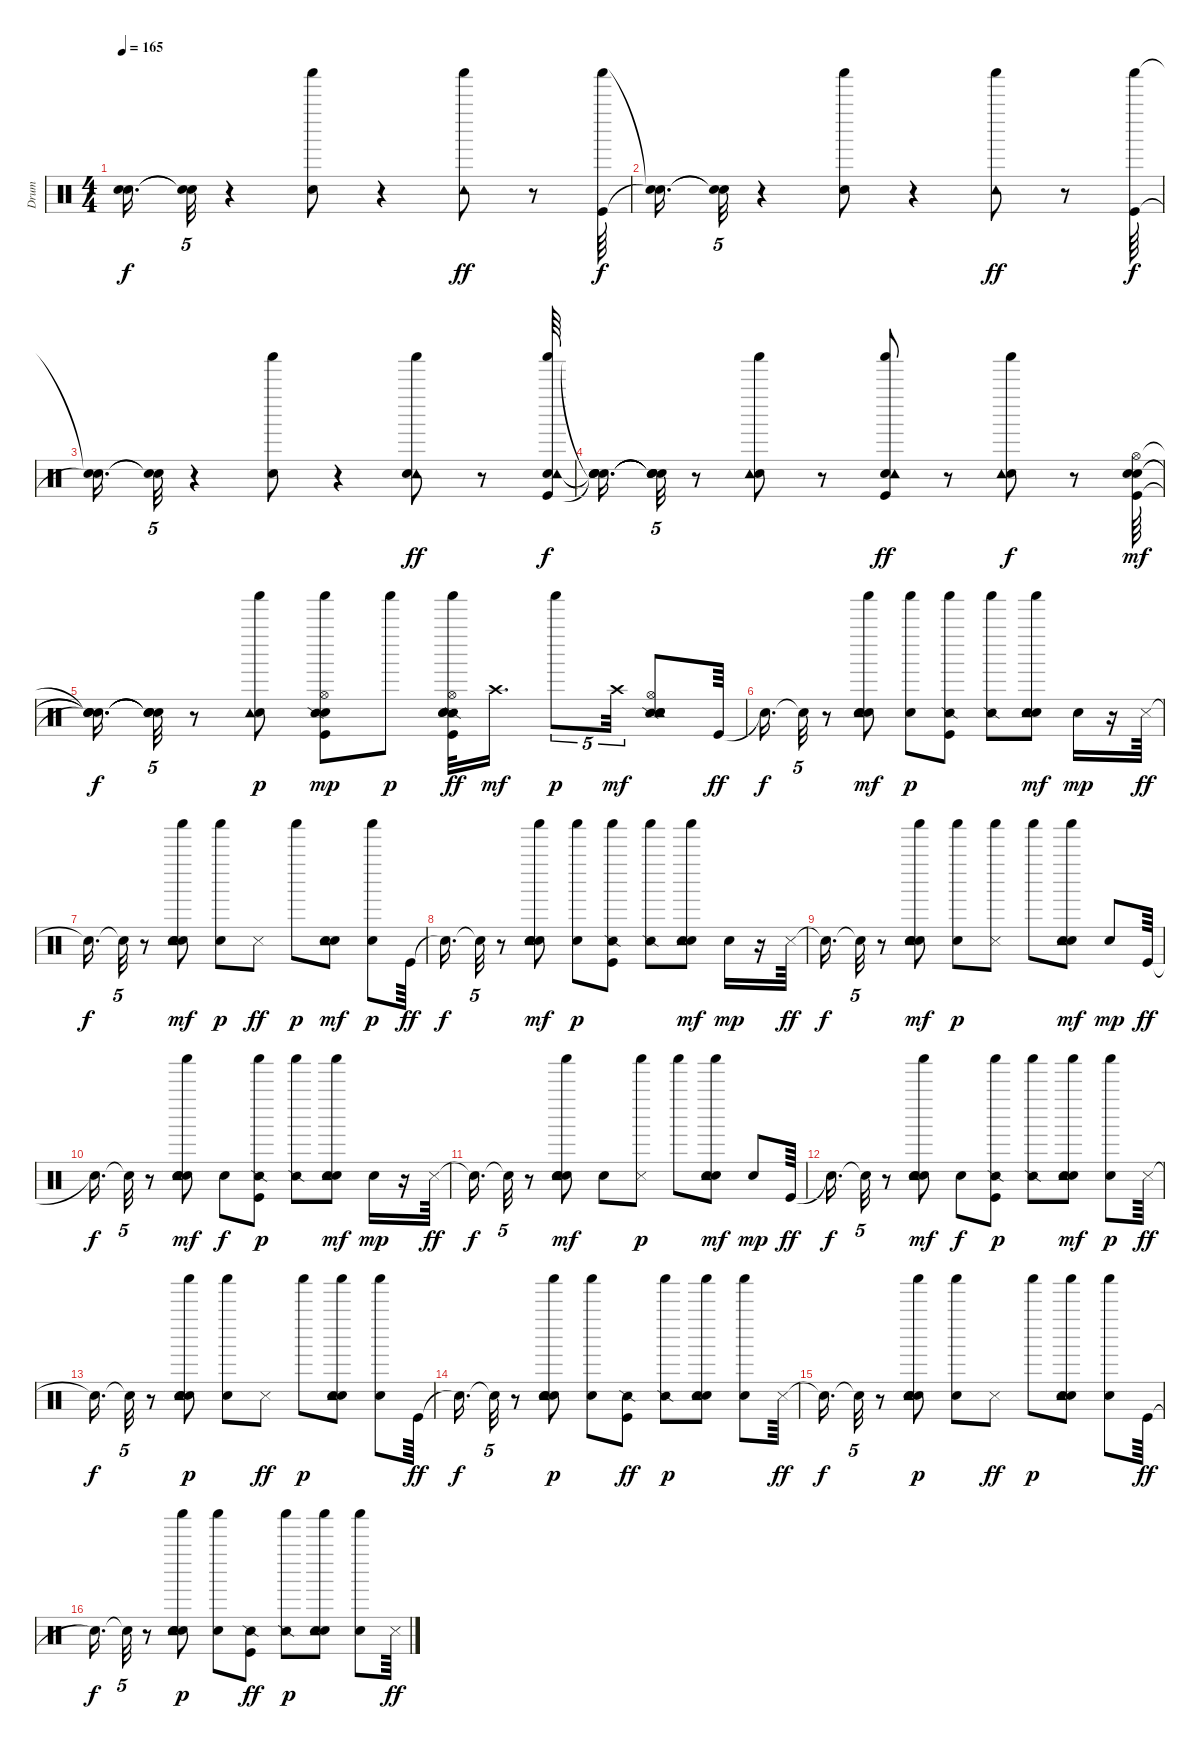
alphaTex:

\track ("Drum" "Drum") {instrument percussion}
\staff {score}
\articulation defaults
\ts (4 4)
\tempo 165
\clef neutral
\ks c
("Snare (hit)"{t} "Snare (hit)"{t}).16{d dy f} ("Snare (hit)"{t} "Snare (hit)"{t}).32{tu (5 4)} r.4 ("Electric Snare (hit)" "Shaker (hit)").8 r.4 ("Shaker (hit)" "Tambourine (hit)").8{dy ff} r.8 ("Kick (hit)" "Shaker (hit)").64{dy f} |
("Snare (hit)"{t} "Snare (hit)"{t}).16{d} ("Snare (hit)"{t} "Snare (hit)"{t}).32{tu (5 4)} r.4 ("Electric Snare (hit)" "Shaker (hit)").8 r.4 ("Shaker (hit)" "Tambourine (hit)").8{dy ff} r.8 ("Kick (hit)" "Shaker (hit)").64{dy f} |
("Snare (hit)"{t} "Snare (hit)"{t}).16{d} ("Snare (hit)"{t} "Snare (hit)"{t}).32{tu (5 4)} r.4 ("Electric Snare (hit)" "Shaker (hit)").8 r.4 ("Shaker (hit)" "Tambourine (hit)" "Electric Snare (hit)").8{dy ff} r.8 ("Kick (hit)" "Shaker (hit)" "Electric Snare (hit)" "Tambourine (hit)").64{dy f} |
("Snare (hit)"{t} "Snare (hit)"{t} "Snare (hit)"{t} "Snare (hit)"{t}).16{d} ("Snare (hit)"{t} "Snare (hit)"{t} "Snare (hit)"{t} "Snare (hit)"{t}).32{tu (5 4)} r.8 ("Electric Snare (hit)" "Shaker (hit)" "Tambourine (hit)").8 r.8 ("Electric Snare (hit)" "Shaker (hit)" "Tambourine (hit)" "Kick (hit)").8{dy ff} r.8 ("Shaker (hit)" "Electric Snare (hit)" "Tambourine (hit)").8{dy f} r.8 ("Kick (hit)" "Hand Clap (hit)" "Electric Snare (hit)" "Hi-Hat (open)").64{dy mf} |
("Snare (hit)"{t} "Snare (hit)"{t} "Snare (hit)"{t} "Snare (hit)"{t}).16{d dy f} ("Snare (hit)"{t} "Snare (hit)"{t} "Snare (hit)"{t} "Snare (hit)"{t}).32{tu (5 4)} r.8 ("Shaker (hit)" "Hand Clap (hit)" "Tambourine (hit)").8{dy p} ("Shaker (hit)" "Hi-Hat (open)" "Electric Snare (hit)" "Kick (hit)" "Snare (side stick) 2").8{dy mp} "Shaker (hit)".8{dy p} ("Shaker (hit)" "Snare (side stick) 2" "Hi-Hat (open)" "Electric Snare (hit)" "Hand Clap (hit)" "Kick (hit)").32{dy ff} "Crash high (hit)".16{d dy mf} "Shaker (hit)".8{tu (5 4) dy p} "Crash high (hit)".32{tu (5 4) dy mf} ("Snare (side stick) 2" "Hi-Hat (open)" "Electric Snare (hit)" "Tambourine (hit)" "Hand Clap (hit)").8 "Kick (hit)".64{dy ff} |
"Snare (hit)"{t}.16{d dy f} "Snare (hit)"{t}.32{tu (5 4)} r.8 ("Hand Clap (hit)" "Metronome (bell)" "Tambourine (hit)" "Shaker (hit)" "Electric Snare (hit)").8{dy mf} ("Hand Clap (hit)" "Shaker (hit)").8{dy p} ("Snare (side stick) 2" "Kick (hit)" "Shaker (hit)").8 ("Snare (side stick) 2" "Shaker (hit)").8 ("Hand Clap (hit)" "Tambourine (hit)" "Shaker (hit)" "Electric Snare (hit)").8{dy mf} "Metronome (bell)".16{dy mp} r.16 "Metronome (hit)".64{dy ff} |
"Snare (hit)"{t}.16{d dy f} "Snare (hit)"{t}.32{tu (5 4)} r.8 ("Hand Clap (hit)" "Metronome (bell)" "Tambourine (hit)" "Shaker (hit)" "Electric Snare (hit)").8{dy mf} ("Hand Clap (hit)" "Shaker (hit)").8{dy p} "Metronome (hit)".8{dy ff} "Shaker (hit)".8{dy p} ("Hand Clap (hit)" "Tambourine (hit)" "Electric Snare (hit)").8{dy mf} ("Metronome (bell)" "Shaker (hit)").8{dy p} "Kick (hit)".64{dy ff} |
"Snare (hit)"{t}.16{d dy f} "Snare (hit)"{t}.32{tu (5 4)} r.8 ("Hand Clap (hit)" "Metronome (bell)" "Tambourine (hit)" "Shaker (hit)" "Electric Snare (hit)").8{dy mf} ("Hand Clap (hit)" "Shaker (hit)").8{dy p} ("Snare (side stick) 2" "Kick (hit)" "Shaker (hit)").8 ("Snare (side stick) 2" "Shaker (hit)").8 ("Hand Clap (hit)" "Tambourine (hit)" "Shaker (hit)" "Electric Snare (hit)").8{dy mf} "Metronome (bell)".16{dy mp} r.16 "Metronome (hit)".64{dy ff} |
"Snare (hit)"{t}.16{d dy f} "Snare (hit)"{t}.32{tu (5 4)} r.8 ("Hand Clap (hit)" "Metronome (bell)" "Tambourine (hit)" "Shaker (hit)" "Electric Snare (hit)").8{dy mf} ("Hand Clap (hit)" "Shaker (hit)").8{dy p} ("Metronome (hit)" "Shaker (hit)").8 "Shaker (hit)".8 ("Hand Clap (hit)" "Tambourine (hit)" "Shaker (hit)" "Electric Snare (hit)").8{dy mf} "Metronome (bell)".8{dy mp} "Kick (hit)".64{dy ff} |
"Snare (hit)"{t}.16{d dy f} "Snare (hit)"{t}.32{tu (5 4)} r.8 ("Hand Clap (hit)" "Metronome (bell)" "Tambourine (hit)" "Shaker (hit)" "Electric Snare (hit)").8{dy mf} "Hand Clap (hit)".8{dy f} ("Snare (side stick) 2" "Kick (hit)" "Shaker (hit)").8{dy p} ("Snare (side stick) 2" "Shaker (hit)").8 ("Hand Clap (hit)" "Tambourine (hit)" "Shaker (hit)" "Electric Snare (hit)").8{dy mf} "Metronome (bell)".16{dy mp} r.16 "Metronome (hit)".64{dy ff} |
"Snare (hit)"{t}.16{d dy f} "Snare (hit)"{t}.32{tu (5 4)} r.8 ("Hand Clap (hit)" "Metronome (bell)" "Tambourine (hit)" "Shaker (hit)" "Electric Snare (hit)").8{dy mf} "Hand Clap (hit)".8 ("Metronome (hit)" "Shaker (hit)").8{dy p} "Shaker (hit)".8 ("Hand Clap (hit)" "Tambourine (hit)" "Shaker (hit)" "Electric Snare (hit)").8{dy mf} "Metronome (bell)".8{dy mp} "Kick (hit)".64{dy ff} |
"Snare (hit)"{t}.16{d dy f} "Snare (hit)"{t}.32{tu (5 4)} r.8 ("Hand Clap (hit)" "Metronome (bell)" "Tambourine (hit)" "Shaker (hit)" "Electric Snare (hit)").8{dy mf} "Hand Clap (hit)".8{dy f} ("Snare (side stick) 2" "Kick (hit)" "Shaker (hit)").8{dy p} ("Snare (side stick) 2" "Shaker (hit)").8 ("Hand Clap (hit)" "Tambourine (hit)" "Shaker (hit)" "Electric Snare (hit)").8{dy mf} ("Metronome (bell)" "Shaker (hit)").8{dy p} "Metronome (hit)".64{dy ff} |
"Snare (hit)"{t}.16{d dy f} "Snare (hit)"{t}.32{tu (5 4)} r.8 ("Hand Clap (hit)" "Metronome (bell)" "Tambourine (hit)" "Electric Snare (hit)" "Shaker (hit)").8{dy p} ("Hand Clap (hit)" "Shaker (hit)").8 "Metronome (hit)".8{dy ff} "Shaker (hit)".8{dy p} ("Hand Clap (hit)" "Tambourine (hit)" "Electric Snare (hit)" "Shaker (hit)").8 ("Metronome (bell)" "Shaker (hit)").8 "Kick (hit)".64{dy ff} |
"Snare (hit)"{t}.16{d dy f} "Snare (hit)"{t}.32{tu (5 4)} r.8 ("Hand Clap (hit)" "Metronome (bell)" "Tambourine (hit)" "Electric Snare (hit)" "Shaker (hit)").8{dy p} ("Hand Clap (hit)" "Shaker (hit)").8 ("Snare (side stick) 2" "Kick (hit)").8{dy ff} ("Snare (side stick) 2" "Shaker (hit)").8{dy p} ("Hand Clap (hit)" "Tambourine (hit)" "Electric Snare (hit)" "Shaker (hit)").8 ("Metronome (bell)" "Shaker (hit)").8 "Metronome (hit)".64{dy ff} |
"Snare (hit)"{t}.16{d dy f} "Snare (hit)"{t}.32{tu (5 4)} r.8 ("Hand Clap (hit)" "Metronome (bell)" "Tambourine (hit)" "Electric Snare (hit)" "Shaker (hit)").8{dy p} ("Hand Clap (hit)" "Shaker (hit)").8 "Metronome (hit)".8{dy ff} "Shaker (hit)".8{dy p} ("Hand Clap (hit)" "Tambourine (hit)" "Electric Snare (hit)" "Shaker (hit)").8 ("Metronome (bell)" "Shaker (hit)").8 "Kick (hit)".64{dy ff} |
"Snare (hit)"{t}.16{d dy f} "Snare (hit)"{t}.32{tu (5 4)} r.8 ("Hand Clap (hit)" "Metronome (bell)" "Tambourine (hit)" "Electric Snare (hit)" "Shaker (hit)").8{dy p} ("Hand Clap (hit)" "Shaker (hit)").8 ("Snare (side stick) 2" "Kick (hit)").8{dy ff} ("Snare (side stick) 2" "Shaker (hit)").8{dy p} ("Hand Clap (hit)" "Tambourine (hit)" "Electric Snare (hit)" "Shaker (hit)").8 ("Metronome (bell)" "Shaker (hit)").8 "Metronome (hit)".64{dy ff}
